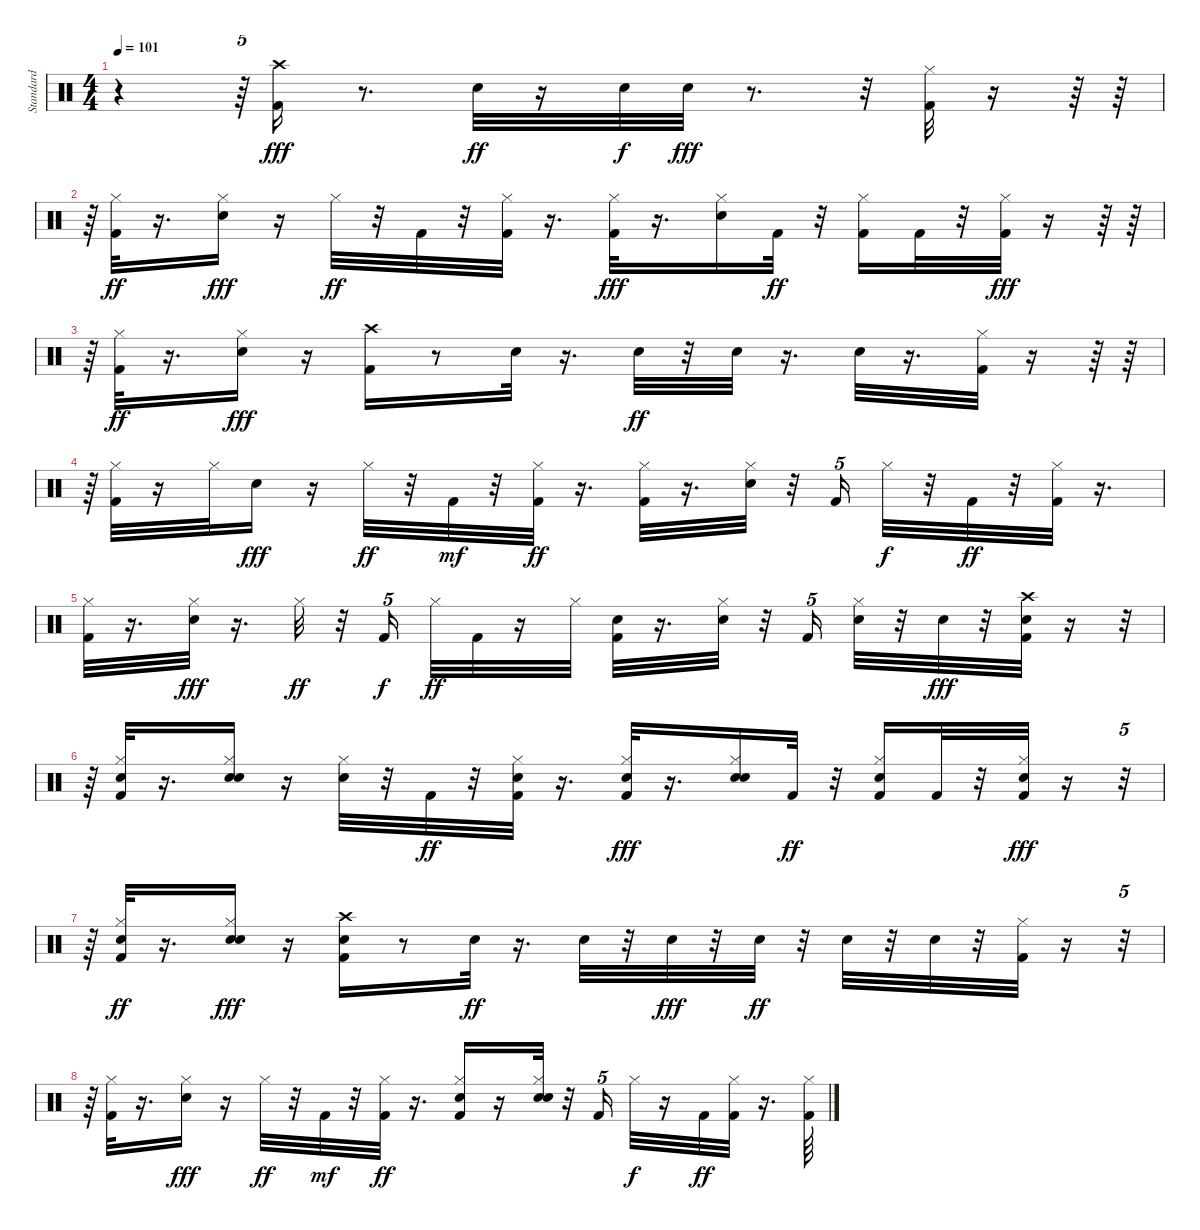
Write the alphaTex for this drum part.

\track (" Standard" " Standard") {instrument percussion}
\staff {score}
\articulation defaults
\ts (4 4)
\tempo 101
\clef neutral
\ks c
r.4{dy fff} r.64{tu (5 4)} ("Crash high (hit)" "Kick (hit) 2").16 r.8{d} "Electric Snare (hit)".32{dy ff} r.16 "Electric Snare (hit)".32{dy f} "Electric Snare (hit)".32{dy fff} r.8{d} r.32 ("Kick (hit) 2" "Hi-Hat (closed)").32 r.16 r.64 r.64 |
r.64{tu (5 4)} ("Kick (hit) 2" "Hi-Hat (closed)").32{dy ff} r.16{d} ("Hi-Hat (closed)" "Electric Snare (hit)").16{dy fff} r.16 "Hi-Hat (closed)".32{dy ff} r.32 "Kick (hit) 2".32 r.32 ("Hi-Hat (closed)" "Kick (hit) 2").32 r.16{d} ("Hi-Hat (closed)" "Kick (hit) 2").32{dy fff} r.16{d} ("Hi-Hat (closed)" "Electric Snare (hit)").16 "Kick (hit) 2".32{dy ff} r.32 ("Hi-Hat (closed)" "Kick (hit) 2").16 "Kick (hit) 2".32 r.32 ("Hi-Hat (closed)" "Kick (hit) 2").32{dy fff} r.16 r.64 r.64 |
r.64{tu (5 4)} ("Kick (hit) 2" "Hi-Hat (closed)").32{dy ff} r.16{d} ("Hi-Hat (closed)" "Electric Snare (hit)").16{dy fff} r.16 ("Crash high (hit)" "Kick (hit) 2").16 r.8 "Electric Snare (hit)".32 r.16{d} "Electric Snare (hit)".32{dy ff} r.32 "Electric Snare (hit)".32 r.16{d} "Electric Snare (hit)".32 r.16{d} ("Hi-Hat (closed)" "Kick (hit) 2").32 r.16 r.64 r.64 |
r.64{tu (5 4)} ("Hi-Hat (closed)" "Kick (hit) 2").32 r.16 "Hi-Hat (closed)".32 "Electric Snare (hit)".16{dy fff} r.16 "Hi-Hat (closed)".32{dy ff} r.32 "Kick (hit) 2".32{dy mf} r.32 ("Hi-Hat (closed)" "Kick (hit) 2").32{dy ff} r.16{d} ("Hi-Hat (closed)" "Kick (hit) 2").32 r.16{d} ("Electric Snare (hit)" "Hi-Hat (closed)").32 r.32 "Kick (hit) 2".16{tu (5 4)} "Hi-Hat (closed)".32{dy f} r.32 "Kick (hit) 2".32{dy ff} r.32 ("Hi-Hat (closed)" "Kick (hit) 2").32 r.16{d} |
("Hi-Hat (closed)" "Kick (hit) 2").32 r.16{d} ("Hi-Hat (closed)" "Electric Snare (hit)").32{dy fff} r.16{d} "Hi-Hat (closed)".32{dy ff} r.32 "Kick (hit) 2".16{tu (5 4) dy f beam splitsecondary} "Hi-Hat (closed)".32{dy ff} "Kick (hit) 2".32 r.16 "Hi-Hat (closed)".32 ("Electric Snare (hit)" "Kick (hit) 2").32 r.16{d} ("Electric Snare (hit)" "Hi-Hat (closed)").32 r.32 "Kick (hit) 2".16{tu (5 4)} ("Hi-Hat (closed)" "Electric Snare (hit)").32 r.32 "Electric Snare (hit)".32{dy fff} r.32 ("Crash high (hit)" "Kick (hit) 2" "Hand Clap (hit)").32 r.16 r.32{tu (5 4)} |
r.64 ("Kick (hit) 2" "Hi-Hat (closed)" "Hand Clap (hit)").32 r.16{d} ("Hi-Hat (closed)" "Electric Snare (hit)" "Hand Clap (hit)").16 r.16 ("Hi-Hat (closed)" "Hand Clap (hit)").32 r.32 "Kick (hit) 2".32{dy ff} r.32 ("Hi-Hat (closed)" "Hand Clap (hit)" "Kick (hit) 2").32 r.16{d} ("Hand Clap (hit)" "Hi-Hat (closed)" "Kick (hit) 2").32{dy fff} r.16{d} ("Hand Clap (hit)" "Hi-Hat (closed)" "Electric Snare (hit)").16 "Kick (hit) 2".32{dy ff} r.32 ("Hand Clap (hit)" "Hi-Hat (closed)" "Kick (hit) 2").16 "Kick (hit) 2".32 r.32 ("Hand Clap (hit)" "Hi-Hat (closed)" "Kick (hit) 2").32{dy fff} r.16 r.32{tu (5 4)} |
r.64 ("Hand Clap (hit)" "Kick (hit) 2" "Hi-Hat (closed)").32{dy ff} r.16{d} ("Hi-Hat (closed)" "Hand Clap (hit)" "Electric Snare (hit)").16{dy fff} r.16 ("Hand Clap (hit)" "Crash high (hit)" "Kick (hit) 2").16 r.8 "Electric Snare (hit)".32{dy ff} r.16{d} "Electric Snare (hit)".32 r.32 "Electric Snare (hit)".32{dy fff} r.32 "Electric Snare (hit)".32{dy ff} r.32 "Electric Snare (hit)".32 r.32 "Electric Snare (hit)".32 r.32 ("Hi-Hat (closed)" "Kick (hit) 2").32 r.16 r.32{tu (5 4)} |
r.64 ("Hi-Hat (closed)" "Kick (hit) 2").32 r.16{d} ("Hi-Hat (closed)" "Electric Snare (hit)").16{dy fff} r.16 "Hi-Hat (closed)".32{dy ff} r.32 "Kick (hit) 2".32{dy mf} r.32 ("Hi-Hat (closed)" "Kick (hit) 2").32{dy ff} r.16{d} ("Hand Clap (hit)" "Hi-Hat (closed)" "Kick (hit) 2").16 r.16 ("Hand Clap (hit)" "Electric Snare (hit)" "Hi-Hat (closed)").32 r.32 "Kick (hit) 2".16{tu (5 4)} "Hi-Hat (closed)".32{dy f} r.16 "Kick (hit) 2".32{dy ff} ("Hi-Hat (closed)" "Kick (hit) 2").32 r.16{d} ("Hi-Hat (closed)" "Kick (hit) 2").64
